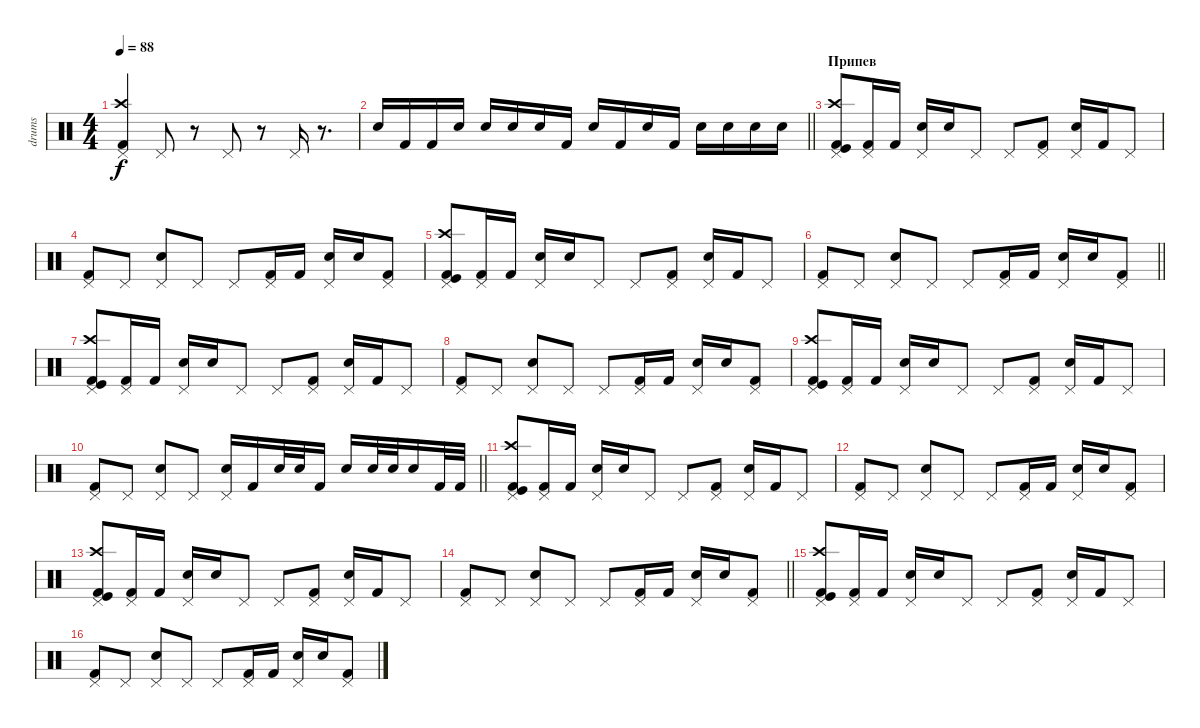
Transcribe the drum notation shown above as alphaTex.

\track ("drums" "drums") {instrument percussion}
\staff {score}
\articulation defaults
\ts (4 4)
\tempo 88
\clef neutral
\ks c
("Kick (hit) 2" "Crash high (hit)" "Pedal Hi-Hat (hit)").4{dy f} "Pedal Hi-Hat (hit)".8 r.8 "Pedal Hi-Hat (hit)".8 r.8 "Pedal Hi-Hat (hit)".16 r.8{d} |
\barLineRight lightlight "Snare (hit) 2".16 "Kick (hit) 2".16 "Kick (hit) 2".16 "Snare (hit) 2".16 "Snare (hit) 2".16 "Snare (hit) 2".16 "Snare (hit) 2".16 "Kick (hit) 2".16 "Snare (hit) 2".16 "Kick (hit) 2".16 "Snare (hit) 2".16 "Kick (hit) 2".16 "Snare (hit) 2".16 "Snare (hit) 2".16 "Snare (hit) 2".16 "Snare (hit) 2".16
|
\section ("" "Припев")
("Kick (hit) 2" "Pedal Hi-Hat (hit)" "Kick (hit)" "Crash high (hit)").8 ("Kick (hit) 2" "Pedal Hi-Hat (hit)").16 "Kick (hit) 2".16 ("Snare (hit) 2" "Pedal Hi-Hat (hit)").16 "Snare (hit) 2".16 "Pedal Hi-Hat (hit)".8 "Pedal Hi-Hat (hit)".8 ("Pedal Hi-Hat (hit)" "Kick (hit) 2").8 ("Snare (hit) 2" "Pedal Hi-Hat (hit)").16 "Kick (hit) 2".16 "Pedal Hi-Hat (hit)".8 |
("Pedal Hi-Hat (hit)" "Kick (hit) 2").8 "Pedal Hi-Hat (hit)".8 ("Snare (hit) 2" "Pedal Hi-Hat (hit)").8 "Pedal Hi-Hat (hit)".8 "Pedal Hi-Hat (hit)".8 ("Pedal Hi-Hat (hit)" "Kick (hit) 2").16 "Kick (hit) 2".16 ("Pedal Hi-Hat (hit)" "Snare (hit) 2").16 "Snare (hit) 2".16 ("Pedal Hi-Hat (hit)" "Kick (hit) 2").8 |
("Kick (hit) 2" "Crash high (hit)" "Kick (hit)" "Pedal Hi-Hat (hit)").8 ("Pedal Hi-Hat (hit)" "Kick (hit) 2").16 "Kick (hit) 2".16 ("Snare (hit) 2" "Pedal Hi-Hat (hit)").16 "Snare (hit) 2".16 "Pedal Hi-Hat (hit)".8 "Pedal Hi-Hat (hit)".8 ("Pedal Hi-Hat (hit)" "Kick (hit) 2").8 ("Snare (hit) 2" "Pedal Hi-Hat (hit)").16 "Kick (hit) 2".16 "Pedal Hi-Hat (hit)".8 |
\barLineRight lightlight
("Kick (hit) 2" "Pedal Hi-Hat (hit)").8 "Pedal Hi-Hat (hit)".8 ("Snare (hit) 2" "Pedal Hi-Hat (hit)").8 "Pedal Hi-Hat (hit)".8 "Pedal Hi-Hat (hit)".8 ("Kick (hit) 2" "Pedal Hi-Hat (hit)").16 "Kick (hit) 2".16 ("Pedal Hi-Hat (hit)" "Snare (hit) 2").16 "Snare (hit) 2".16 ("Kick (hit) 2" "Pedal Hi-Hat (hit)").8 |
("Kick (hit) 2" "Crash high (hit)" "Kick (hit)" "Pedal Hi-Hat (hit)").8 ("Kick (hit) 2" "Pedal Hi-Hat (hit)").16 "Kick (hit) 2".16 ("Pedal Hi-Hat (hit)" "Snare (hit) 2").16 "Snare (hit) 2".16 "Pedal Hi-Hat (hit)".8 "Pedal Hi-Hat (hit)".8 ("Pedal Hi-Hat (hit)" "Kick (hit) 2").8 ("Pedal Hi-Hat (hit)" "Snare (hit) 2").16 "Kick (hit) 2".16 "Pedal Hi-Hat (hit)".8 |
("Pedal Hi-Hat (hit)" "Kick (hit) 2").8 "Pedal Hi-Hat (hit)".8 ("Pedal Hi-Hat (hit)" "Snare (hit) 2").8 "Pedal Hi-Hat (hit)".8 "Pedal Hi-Hat (hit)".8 ("Pedal Hi-Hat (hit)" "Kick (hit) 2").16 "Kick (hit) 2".16 ("Snare (hit) 2" "Pedal Hi-Hat (hit)").16 "Snare (hit) 2".16 ("Kick (hit) 2" "Pedal Hi-Hat (hit)").8 |
("Pedal Hi-Hat (hit)" "Crash high (hit)" "Kick (hit)" "Kick (hit) 2").8 ("Pedal Hi-Hat (hit)" "Kick (hit) 2").16 "Kick (hit) 2".16 ("Snare (hit) 2" "Pedal Hi-Hat (hit)").16 "Snare (hit) 2".16 "Pedal Hi-Hat (hit)".8 "Pedal Hi-Hat (hit)".8 ("Pedal Hi-Hat (hit)" "Kick (hit) 2").8 ("Snare (hit) 2" "Pedal Hi-Hat (hit)").16 "Kick (hit) 2".16 "Pedal Hi-Hat (hit)".8 |
\barLineRight lightlight
("Kick (hit) 2" "Pedal Hi-Hat (hit)").8 "Pedal Hi-Hat (hit)".8 ("Pedal Hi-Hat (hit)" "Snare (hit) 2").8 "Pedal Hi-Hat (hit)".8 ("Pedal Hi-Hat (hit)" "Snare (hit) 2").16 "Kick (hit) 2".16 "Snare (hit) 2".32 "Snare (hit) 2".32 "Kick (hit) 2".16 "Snare (hit) 2".16 "Snare (hit) 2".32 "Snare (hit) 2".32 "Snare (hit) 2".16 "Kick (hit) 2".32 "Kick (hit) 2".32 |
("Kick (hit)" "Crash high (hit)" "Kick (hit) 2" "Pedal Hi-Hat (hit)").8 ("Kick (hit) 2" "Pedal Hi-Hat (hit)").16 "Kick (hit) 2".16 ("Snare (hit) 2" "Pedal Hi-Hat (hit)").16 "Snare (hit) 2".16 "Pedal Hi-Hat (hit)".8 "Pedal Hi-Hat (hit)".8 ("Pedal Hi-Hat (hit)" "Kick (hit) 2").8 ("Pedal Hi-Hat (hit)" "Snare (hit) 2").16 "Kick (hit) 2".16 "Pedal Hi-Hat (hit)".8 |
("Pedal Hi-Hat (hit)" "Kick (hit) 2").8 "Pedal Hi-Hat (hit)".8 ("Snare (hit) 2" "Pedal Hi-Hat (hit)").8 "Pedal Hi-Hat (hit)".8 "Pedal Hi-Hat (hit)".8 ("Pedal Hi-Hat (hit)" "Kick (hit) 2").16 "Kick (hit) 2".16 ("Pedal Hi-Hat (hit)" "Snare (hit) 2").16 "Snare (hit) 2".16 ("Kick (hit) 2" "Pedal Hi-Hat (hit)").8 |
("Crash high (hit)" "Kick (hit) 2" "Pedal Hi-Hat (hit)" "Kick (hit)").8 ("Kick (hit) 2" "Pedal Hi-Hat (hit)").16 "Kick (hit) 2".16 ("Snare (hit) 2" "Pedal Hi-Hat (hit)").16 "Snare (hit) 2".16 "Pedal Hi-Hat (hit)".8 "Pedal Hi-Hat (hit)".8 ("Kick (hit) 2" "Pedal Hi-Hat (hit)").8 ("Pedal Hi-Hat (hit)" "Snare (hit) 2").16 "Kick (hit) 2".16 "Pedal Hi-Hat (hit)".8 |
\barLineRight lightlight
("Kick (hit) 2" "Pedal Hi-Hat (hit)").8 "Pedal Hi-Hat (hit)".8 ("Pedal Hi-Hat (hit)" "Snare (hit) 2").8 "Pedal Hi-Hat (hit)".8 "Pedal Hi-Hat (hit)".8 ("Pedal Hi-Hat (hit)" "Kick (hit) 2").16 "Kick (hit) 2".16 ("Pedal Hi-Hat (hit)" "Snare (hit) 2").16 "Snare (hit) 2".16 ("Pedal Hi-Hat (hit)" "Kick (hit) 2").8 |
("Crash high (hit)" "Kick (hit)" "Kick (hit) 2" "Pedal Hi-Hat (hit)").8 ("Kick (hit) 2" "Pedal Hi-Hat (hit)").16 "Kick (hit) 2".16 ("Snare (hit) 2" "Pedal Hi-Hat (hit)").16 "Snare (hit) 2".16 "Pedal Hi-Hat (hit)".8 "Pedal Hi-Hat (hit)".8 ("Pedal Hi-Hat (hit)" "Kick (hit) 2").8 ("Pedal Hi-Hat (hit)" "Snare (hit) 2").16 "Kick (hit) 2".16 "Pedal Hi-Hat (hit)".8 |
("Kick (hit) 2" "Pedal Hi-Hat (hit)").8 "Pedal Hi-Hat (hit)".8 ("Pedal Hi-Hat (hit)" "Snare (hit) 2").8 "Pedal Hi-Hat (hit)".8 "Pedal Hi-Hat (hit)".8 ("Pedal Hi-Hat (hit)" "Kick (hit) 2").16 "Kick (hit) 2".16 ("Pedal Hi-Hat (hit)" "Snare (hit) 2").16 "Snare (hit) 2".16 ("Kick (hit) 2" "Pedal Hi-Hat (hit)").8
